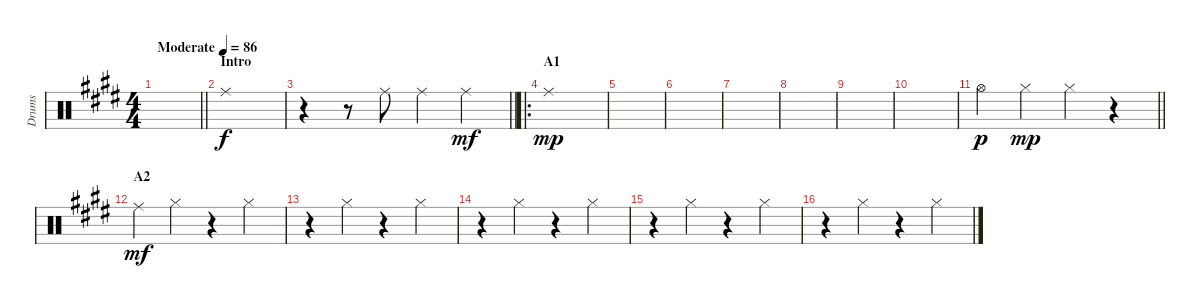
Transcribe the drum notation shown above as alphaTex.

\track ("Drums" "Drums") {instrument percussion}
\staff {score}
\articulation defaults
\ts (4 4)
\tempo (86 "Moderate")
\clef neutral
\barLineRight lightlight
\ks e
|
\section ("" "Intro")
"Ride (middle)".1 |
\barLineRight lightlight
r.4 r.8 "Ride (middle)".8 "Ride (middle)".4 "Ride (middle)".4{dy mf} |
\ro
\section ("" "A1")
"Ride (middle)".1{dy mp} |
|
|
|
|
|
|
\barLineRight lightlight "Hi-Hat (open)".4{dy p} "Hi-Hat (closed)".4{dy mp} "Hi-Hat (closed)".4
r.4 |
\section ("" "A2")
"Ride (middle)".4{dy mf} "Hi-Hat (closed)".4 r.4 "Hi-Hat (closed)".4 |
r.4 "Hi-Hat (closed)".4 r.4 "Hi-Hat (closed)".4 |
r.4 "Hi-Hat (closed)".4 r.4 "Hi-Hat (closed)".4 |
r.4 "Hi-Hat (closed)".4 r.4 "Hi-Hat (closed)".4 |
r.4 "Hi-Hat (closed)".4 r.4 "Hi-Hat (closed)".4
